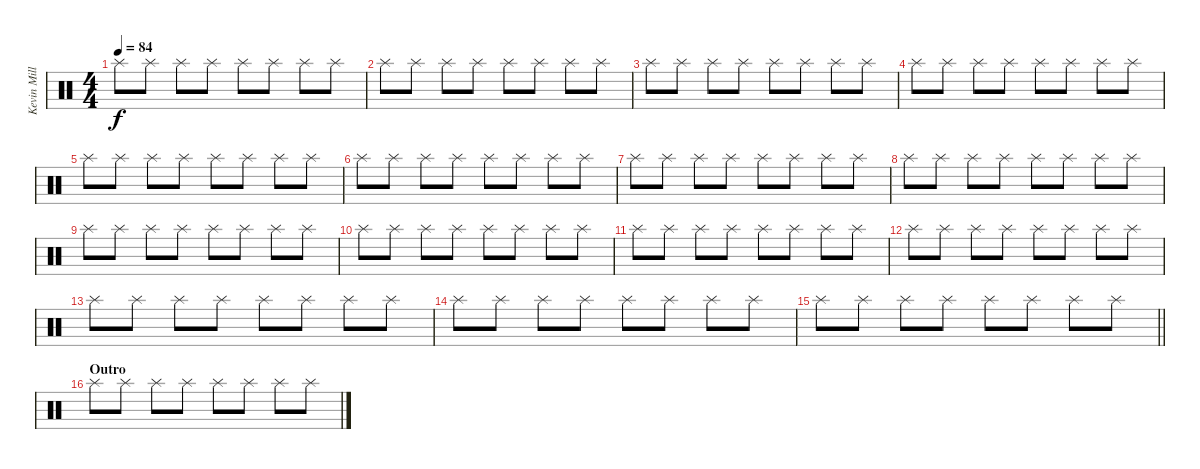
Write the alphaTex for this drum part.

\track ("Kevin Miller (Drums)" "Kevin Mill") {instrument percussion}
\staff {score}
\articulation defaults
\ts (4 4)
\tempo 84
\clef neutral
\ks c "Splash (hit)".8{dy f} "Splash (hit)".8 "Splash (hit)".8 "Splash (hit)".8 "Splash (hit)".8 "Splash (hit)".8 "Splash (hit)".8 "Splash (hit)".8
|
"Splash (hit)".8 "Splash (hit)".8 "Splash (hit)".8 "Splash (hit)".8 "Splash (hit)".8 "Splash (hit)".8 "Splash (hit)".8 "Splash (hit)".8 |
"Splash (hit)".8 "Splash (hit)".8 "Splash (hit)".8 "Splash (hit)".8 "Splash (hit)".8 "Splash (hit)".8 "Splash (hit)".8 "Splash (hit)".8 |
"Splash (hit)".8 "Splash (hit)".8 "Splash (hit)".8 "Splash (hit)".8 "Splash (hit)".8 "Splash (hit)".8 "Splash (hit)".8 "Splash (hit)".8 |
"Splash (hit)".8 "Splash (hit)".8 "Splash (hit)".8 "Splash (hit)".8 "Splash (hit)".8 "Splash (hit)".8 "Splash (hit)".8 "Splash (hit)".8 |
"Splash (hit)".8 "Splash (hit)".8 "Splash (hit)".8 "Splash (hit)".8 "Splash (hit)".8 "Splash (hit)".8 "Splash (hit)".8 "Splash (hit)".8 |
"Splash (hit)".8 "Splash (hit)".8 "Splash (hit)".8 "Splash (hit)".8 "Splash (hit)".8 "Splash (hit)".8 "Splash (hit)".8 "Splash (hit)".8 |
"Splash (hit)".8 "Splash (hit)".8 "Splash (hit)".8 "Splash (hit)".8 "Splash (hit)".8 "Splash (hit)".8 "Splash (hit)".8 "Splash (hit)".8 |
"Splash (hit)".8 "Splash (hit)".8 "Splash (hit)".8 "Splash (hit)".8 "Splash (hit)".8 "Splash (hit)".8 "Splash (hit)".8 "Splash (hit)".8 |
"Splash (hit)".8 "Splash (hit)".8 "Splash (hit)".8 "Splash (hit)".8 "Splash (hit)".8 "Splash (hit)".8 "Splash (hit)".8 "Splash (hit)".8 |
"Splash (hit)".8 "Splash (hit)".8 "Splash (hit)".8 "Splash (hit)".8 "Splash (hit)".8 "Splash (hit)".8 "Splash (hit)".8 "Splash (hit)".8 |
"Splash (hit)".8 "Splash (hit)".8 "Splash (hit)".8 "Splash (hit)".8 "Splash (hit)".8 "Splash (hit)".8 "Splash (hit)".8 "Splash (hit)".8 |
"Splash (hit)".8 "Splash (hit)".8 "Splash (hit)".8 "Splash (hit)".8 "Splash (hit)".8 "Splash (hit)".8 "Splash (hit)".8 "Splash (hit)".8 |
"Splash (hit)".8 "Splash (hit)".8 "Splash (hit)".8 "Splash (hit)".8 "Splash (hit)".8 "Splash (hit)".8 "Splash (hit)".8 "Splash (hit)".8 |
\barLineRight lightlight "Splash (hit)".8 "Splash (hit)".8 "Splash (hit)".8 "Splash (hit)".8 "Splash (hit)".8 "Splash (hit)".8 "Splash (hit)".8 "Splash (hit)".8
|
\section ("" "Outro")
"Splash (hit)".8 "Splash (hit)".8 "Splash (hit)".8 "Splash (hit)".8 "Splash (hit)".8 "Splash (hit)".8 "Splash (hit)".8 "Splash (hit)".8
